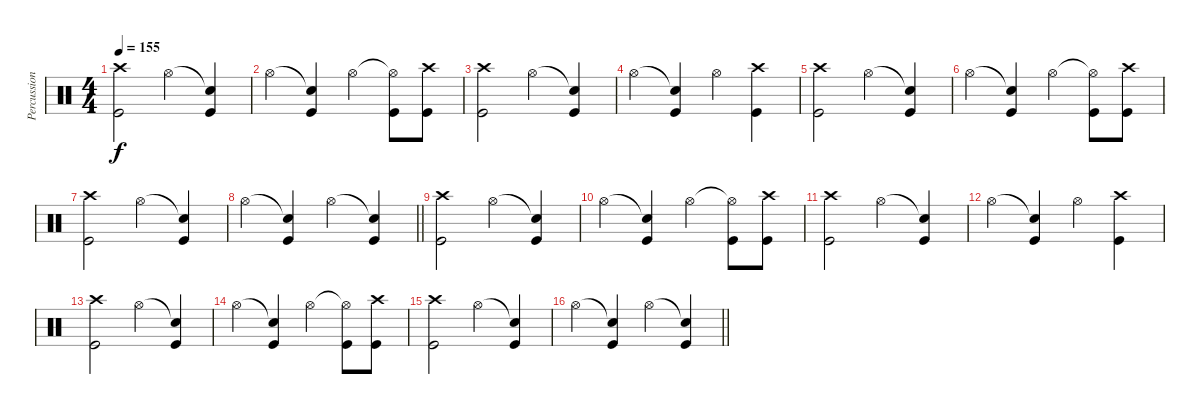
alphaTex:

\track ("Percussions" "Percussion") {instrument percussion}
\staff {score}
\articulation defaults
\ts (4 4)
\tempo 155
\clef neutral
\ks c
("Crash high (hit)" "Kick (hit)").2{dy f} "Hi-Hat (open)".4 ("Snare (hit)"{t} "Kick (hit)").4 |
"Hi-Hat (open)".4 ("Snare (hit)"{t} "Kick (hit)").4 "Hi-Hat (open)".4 ("Hi-Hat (open)"{t} "Kick (hit)").8 ("Crash high (hit)" "Kick (hit)").8 |
("Crash high (hit)" "Kick (hit)").2 "Hi-Hat (open)".4 ("Snare (hit)"{t} "Kick (hit)").4 |
"Hi-Hat (open)".4 ("Snare (hit)"{t} "Kick (hit)").4 "Hi-Hat (open)".4 ("Crash high (hit)" "Kick (hit)").4 |
("Crash high (hit)" "Kick (hit)").2 "Hi-Hat (open)".4 ("Snare (hit)"{t} "Kick (hit)").4 |
"Hi-Hat (open)".4 ("Snare (hit)"{t} "Kick (hit)").4 "Hi-Hat (open)".4 ("Hi-Hat (open)"{t} "Kick (hit)").8 ("Crash high (hit)" "Kick (hit)").8 |
("Crash high (hit)" "Kick (hit)").2 "Hi-Hat (open)".4 ("Snare (hit)"{t} "Kick (hit)").4 |
\barLineRight lightlight "Hi-Hat (open)".4
("Snare (hit)"{t} "Kick (hit)").4 "Hi-Hat (open)".4 ("Snare (hit)"{t} "Kick (hit)").4 |
("Crash high (hit)" "Kick (hit)").2 "Hi-Hat (open)".4 ("Snare (hit)"{t} "Kick (hit)").4 |
"Hi-Hat (open)".4 ("Snare (hit)"{t} "Kick (hit)").4 "Hi-Hat (open)".4 ("Hi-Hat (open)"{t} "Kick (hit)").8 ("Crash high (hit)" "Kick (hit)").8 |
("Crash high (hit)" "Kick (hit)").2 "Hi-Hat (open)".4 ("Snare (hit)"{t} "Kick (hit)").4 |
"Hi-Hat (open)".4 ("Snare (hit)"{t} "Kick (hit)").4 "Hi-Hat (open)".4 ("Crash high (hit)" "Kick (hit)").4 |
("Crash high (hit)" "Kick (hit)").2 "Hi-Hat (open)".4 ("Snare (hit)"{t} "Kick (hit)").4 |
"Hi-Hat (open)".4 ("Snare (hit)"{t} "Kick (hit)").4 "Hi-Hat (open)".4 ("Hi-Hat (open)"{t} "Kick (hit)").8 ("Crash high (hit)" "Kick (hit)").8 |
("Crash high (hit)" "Kick (hit)").2 "Hi-Hat (open)".4 ("Snare (hit)"{t} "Kick (hit)").4 |
\barLineRight lightlight "Hi-Hat (open)".4
("Snare (hit)"{t} "Kick (hit)").4 "Hi-Hat (open)".4 ("Snare (hit)"{t} "Kick (hit)").4
